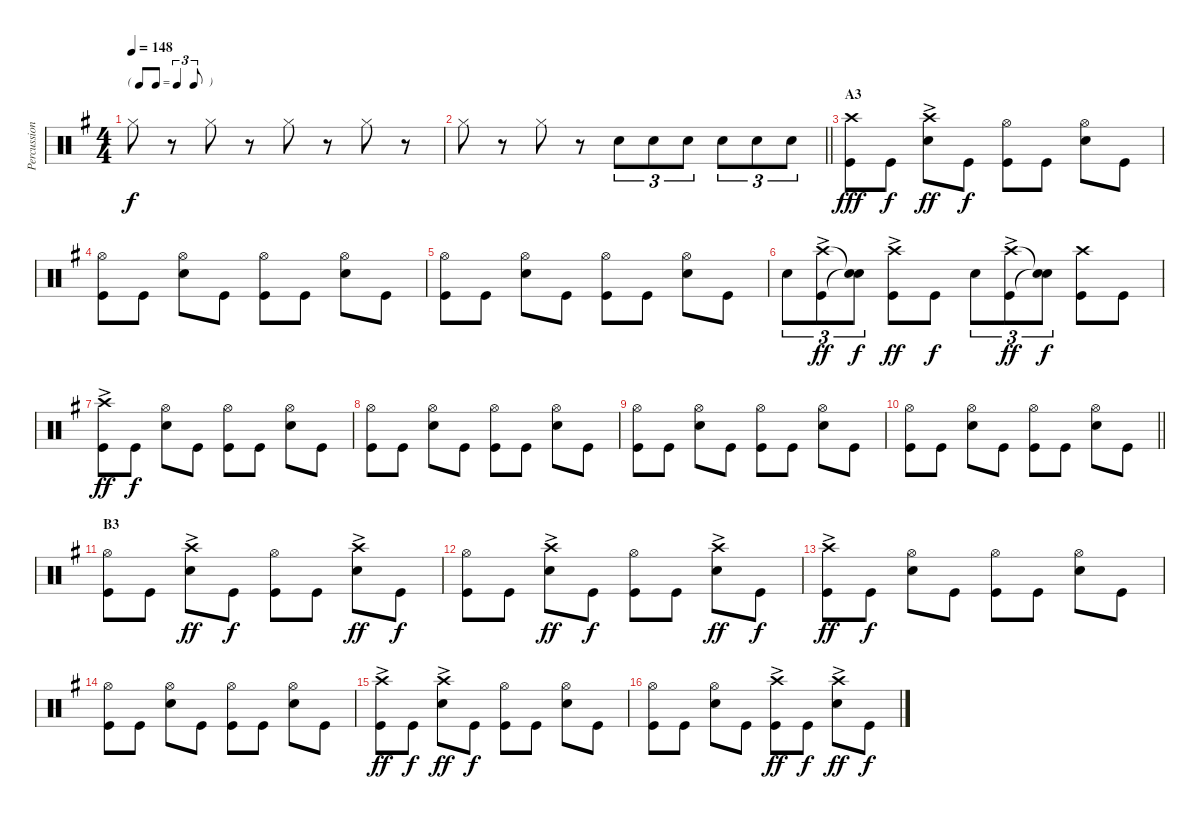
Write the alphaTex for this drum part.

\track ("Percussion" "Percussion") {instrument percussion}
\staff {score}
\articulation defaults
\ts (4 4)
\tf triplet8th
\tempo 148
\clef neutral
\ks g "Hi-Hat (closed)".8{dy f}
r.8 "Hi-Hat (closed)".8 r.8 "Hi-Hat (closed)".8 r.8 "Hi-Hat (closed)".8 r.8 |
\barLineRight lightlight "Hi-Hat (closed)".8
r.8 "Hi-Hat (closed)".8 r.8 "Snare (hit) 2".8{tu (3 2)} "Snare (hit) 2".8{tu (3 2)} "Snare (hit) 2".8{tu (3 2)} "Snare (hit) 2".8{tu (3 2)} "Snare (hit) 2".8{tu (3 2)} "Snare (hit) 2".8{tu (3 2)} |
\section ("" "A3")
("Crash high (hit)" "Kick (hit)").8{dy fff} "Kick (hit)".8{dy f} ("Crash high (hit)"{ac} "Snare (hit) 2").8{dy ff} "Kick (hit)".8{dy f} ("Hi-Hat (open)" "Kick (hit)").8 "Kick (hit)".8 ("Hi-Hat (open)" "Snare (hit) 2").8 "Kick (hit)".8 |
("Hi-Hat (open)" "Kick (hit)").8 "Kick (hit)".8 ("Hi-Hat (open)" "Snare (hit) 2").8 "Kick (hit)".8 ("Hi-Hat (open)" "Kick (hit)").8 "Kick (hit)".8 ("Hi-Hat (open)" "Snare (hit) 2").8 "Kick (hit)".8 |
("Hi-Hat (open)" "Kick (hit)").8 "Kick (hit)".8 ("Hi-Hat (open)" "Snare (hit) 2").8 "Kick (hit)".8 ("Hi-Hat (open)" "Kick (hit)").8 "Kick (hit)".8 ("Hi-Hat (open)" "Snare (hit) 2").8 "Kick (hit)".8 |
"Snare (hit) 2".8{tu (3 2)} ("Crash high (hit)"{ac} "Kick (hit)").8{tu (3 2) dy ff} ("Snare (hit)"{t} "Snare (hit)"{t}).8{tu (3 2) dy f} ("Crash high (hit)"{ac} "Kick (hit)").8{dy ff} "Kick (hit)".8{dy f} "Snare (hit) 2".8{tu (3 2)} ("Crash high (hit)"{ac} "Kick (hit)").8{tu (3 2) dy ff} ("Snare (hit)"{t} "Snare (hit)"{t}).8{tu (3 2) dy f} ("Crash high (hit)" "Kick (hit)").8 "Kick (hit)".8 |
("Crash high (hit)"{ac} "Kick (hit)").8{dy ff} "Kick (hit)".8{dy f} ("Hi-Hat (open)" "Snare (hit) 2").8 "Kick (hit)".8 ("Hi-Hat (open)" "Kick (hit)").8 "Kick (hit)".8 ("Hi-Hat (open)" "Snare (hit) 2").8 "Kick (hit)".8 |
("Hi-Hat (open)" "Kick (hit)").8 "Kick (hit)".8 ("Hi-Hat (open)" "Snare (hit) 2").8 "Kick (hit)".8 ("Hi-Hat (open)" "Kick (hit)").8 "Kick (hit)".8 ("Hi-Hat (open)" "Snare (hit) 2").8 "Kick (hit)".8 |
("Hi-Hat (open)" "Kick (hit)").8 "Kick (hit)".8 ("Hi-Hat (open)" "Snare (hit) 2").8 "Kick (hit)".8 ("Hi-Hat (open)" "Kick (hit)").8 "Kick (hit)".8 ("Hi-Hat (open)" "Snare (hit) 2").8 "Kick (hit)".8 |
\barLineRight lightlight
("Hi-Hat (open)" "Kick (hit)").8 "Kick (hit)".8 ("Hi-Hat (open)" "Snare (hit) 2").8 "Kick (hit)".8 ("Hi-Hat (open)" "Kick (hit)").8 "Kick (hit)".8 ("Hi-Hat (open)" "Snare (hit) 2").8 "Kick (hit)".8 |
\section ("" "B3")
("Hi-Hat (open)" "Kick (hit)").8 "Kick (hit)".8 ("Crash high (hit)"{ac} "Snare (hit) 2").8{dy ff} "Kick (hit)".8{dy f} ("Hi-Hat (open)" "Kick (hit)").8 "Kick (hit)".8 ("Crash high (hit)"{ac} "Snare (hit) 2").8{dy ff} "Kick (hit)".8{dy f} |
("Hi-Hat (open)" "Kick (hit)").8 "Kick (hit)".8 ("Crash high (hit)"{ac} "Snare (hit) 2").8{dy ff} "Kick (hit)".8{dy f} ("Hi-Hat (open)" "Kick (hit)").8 "Kick (hit)".8 ("Crash high (hit)"{ac} "Snare (hit) 2").8{dy ff} "Kick (hit)".8{dy f} |
("Crash high (hit)"{ac} "Kick (hit)").8{dy ff} "Kick (hit)".8{dy f} ("Hi-Hat (open)" "Snare (hit) 2").8 "Kick (hit)".8 ("Hi-Hat (open)" "Kick (hit)").8 "Kick (hit)".8 ("Hi-Hat (open)" "Snare (hit) 2").8 "Kick (hit)".8 |
("Hi-Hat (open)" "Kick (hit)").8 "Kick (hit)".8 ("Hi-Hat (open)" "Snare (hit) 2").8 "Kick (hit)".8 ("Hi-Hat (open)" "Kick (hit)").8 "Kick (hit)".8 ("Hi-Hat (open)" "Snare (hit) 2").8 "Kick (hit)".8 |
("Crash high (hit)"{ac} "Kick (hit)").8{dy ff} "Kick (hit)".8{dy f} ("Crash high (hit)"{ac} "Snare (hit) 2").8{dy ff} "Kick (hit)".8{dy f} ("Hi-Hat (open)" "Kick (hit)").8 "Kick (hit)".8 ("Hi-Hat (open)" "Snare (hit) 2").8 "Kick (hit)".8 |
("Hi-Hat (open)" "Kick (hit)").8 "Kick (hit)".8 ("Hi-Hat (open)" "Snare (hit) 2").8 "Kick (hit)".8 ("Crash high (hit)"{ac} "Kick (hit)").8{dy ff} "Kick (hit)".8{dy f} ("Crash high (hit)"{ac} "Snare (hit) 2").8{dy ff} "Kick (hit)".8{dy f}
